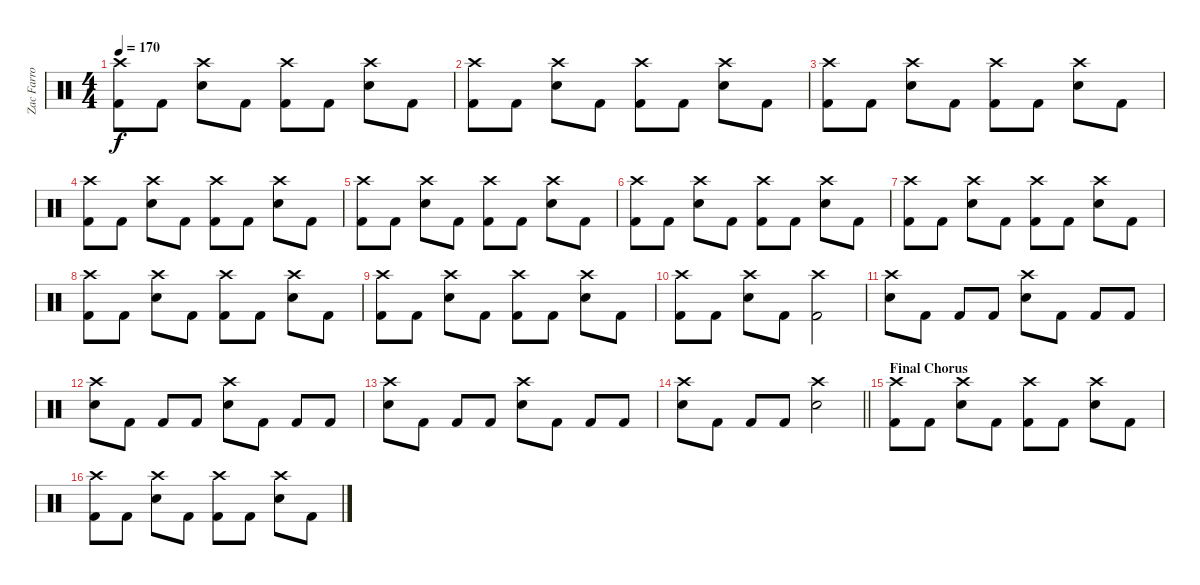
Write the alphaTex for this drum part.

\track ("Zac Farro (Percussion)" "Zac Farro ") {instrument percussion}
\staff {score}
\articulation defaults
\ts (4 4)
\tempo 170
\clef neutral
\ks c
("Crash high (hit)" "Kick (hit) 2").8{dy f} "Kick (hit) 2".8 ("Crash high (hit)" "Electric Snare (hit)").8 "Kick (hit) 2".8 ("Crash high (hit)" "Kick (hit) 2").8 "Kick (hit) 2".8 ("Crash high (hit)" "Electric Snare (hit)").8 "Kick (hit) 2".8 |
("Crash high (hit)" "Kick (hit) 2").8 "Kick (hit) 2".8 ("Crash high (hit)" "Electric Snare (hit)").8 "Kick (hit) 2".8 ("Crash high (hit)" "Kick (hit) 2").8 "Kick (hit) 2".8 ("Crash high (hit)" "Electric Snare (hit)").8 "Kick (hit) 2".8 |
("Crash high (hit)" "Kick (hit) 2").8 "Kick (hit) 2".8 ("Crash high (hit)" "Electric Snare (hit)").8 "Kick (hit) 2".8 ("Crash high (hit)" "Kick (hit) 2").8 "Kick (hit) 2".8 ("Crash high (hit)" "Electric Snare (hit)").8 "Kick (hit) 2".8 |
("Crash high (hit)" "Kick (hit) 2").8 "Kick (hit) 2".8 ("Crash high (hit)" "Electric Snare (hit)").8 "Kick (hit) 2".8 ("Crash high (hit)" "Kick (hit) 2").8 "Kick (hit) 2".8 ("Crash high (hit)" "Electric Snare (hit)").8 "Kick (hit) 2".8 |
("Crash high (hit)" "Kick (hit) 2").8 "Kick (hit) 2".8 ("Crash high (hit)" "Electric Snare (hit)").8 "Kick (hit) 2".8 ("Crash high (hit)" "Kick (hit) 2").8 "Kick (hit) 2".8 ("Crash high (hit)" "Electric Snare (hit)").8 "Kick (hit) 2".8 |
("Crash high (hit)" "Kick (hit) 2").8 "Kick (hit) 2".8 ("Crash high (hit)" "Electric Snare (hit)").8 "Kick (hit) 2".8 ("Crash high (hit)" "Kick (hit) 2").8 "Kick (hit) 2".8 ("Crash high (hit)" "Electric Snare (hit)").8 "Kick (hit) 2".8 |
("Crash high (hit)" "Kick (hit) 2").8 "Kick (hit) 2".8 ("Crash high (hit)" "Electric Snare (hit)").8 "Kick (hit) 2".8 ("Crash high (hit)" "Kick (hit) 2").8 "Kick (hit) 2".8 ("Crash high (hit)" "Electric Snare (hit)").8 "Kick (hit) 2".8 |
("Crash high (hit)" "Kick (hit) 2").8 "Kick (hit) 2".8 ("Crash high (hit)" "Electric Snare (hit)").8 "Kick (hit) 2".8 ("Crash high (hit)" "Kick (hit) 2").8 "Kick (hit) 2".8 ("Crash high (hit)" "Electric Snare (hit)").8 "Kick (hit) 2".8 |
("Crash high (hit)" "Kick (hit) 2").8 "Kick (hit) 2".8 ("Crash high (hit)" "Electric Snare (hit)").8 "Kick (hit) 2".8 ("Crash high (hit)" "Kick (hit) 2").8 "Kick (hit) 2".8 ("Crash high (hit)" "Electric Snare (hit)").8 "Kick (hit) 2".8 |
("Crash high (hit)" "Kick (hit) 2").8 "Kick (hit) 2".8 ("Crash high (hit)" "Electric Snare (hit)").8 "Kick (hit) 2".8 ("Crash high (hit)" "Kick (hit) 2").2 |
("Crash high (hit)" "Electric Snare (hit)").8 "Kick (hit) 2".8 "Kick (hit) 2".8 "Kick (hit) 2".8 ("Crash high (hit)" "Electric Snare (hit)").8 "Kick (hit) 2".8 "Kick (hit) 2".8 "Kick (hit) 2".8 |
("Crash high (hit)" "Electric Snare (hit)").8 "Kick (hit) 2".8 "Kick (hit) 2".8 "Kick (hit) 2".8 ("Crash high (hit)" "Electric Snare (hit)").8 "Kick (hit) 2".8 "Kick (hit) 2".8 "Kick (hit) 2".8 |
("Crash high (hit)" "Electric Snare (hit)").8 "Kick (hit) 2".8 "Kick (hit) 2".8 "Kick (hit) 2".8 ("Crash high (hit)" "Electric Snare (hit)").8 "Kick (hit) 2".8 "Kick (hit) 2".8 "Kick (hit) 2".8 |
\barLineRight lightlight
("Crash high (hit)" "Electric Snare (hit)").8 "Kick (hit) 2".8 "Kick (hit) 2".8 "Kick (hit) 2".8 ("Crash high (hit)" "Electric Snare (hit)").2 |
\section ("" "Final Chorus")
("Crash high (hit)" "Kick (hit) 2").8 "Kick (hit) 2".8 ("Crash high (hit)" "Electric Snare (hit)").8 "Kick (hit) 2".8 ("Crash high (hit)" "Kick (hit) 2").8 "Kick (hit) 2".8 ("Crash high (hit)" "Electric Snare (hit)").8 "Kick (hit) 2".8 |
("Crash high (hit)" "Kick (hit) 2").8 "Kick (hit) 2".8 ("Crash high (hit)" "Electric Snare (hit)").8 "Kick (hit) 2".8 ("Crash high (hit)" "Kick (hit) 2").8 "Kick (hit) 2".8 ("Crash high (hit)" "Electric Snare (hit)").8 "Kick (hit) 2".8
